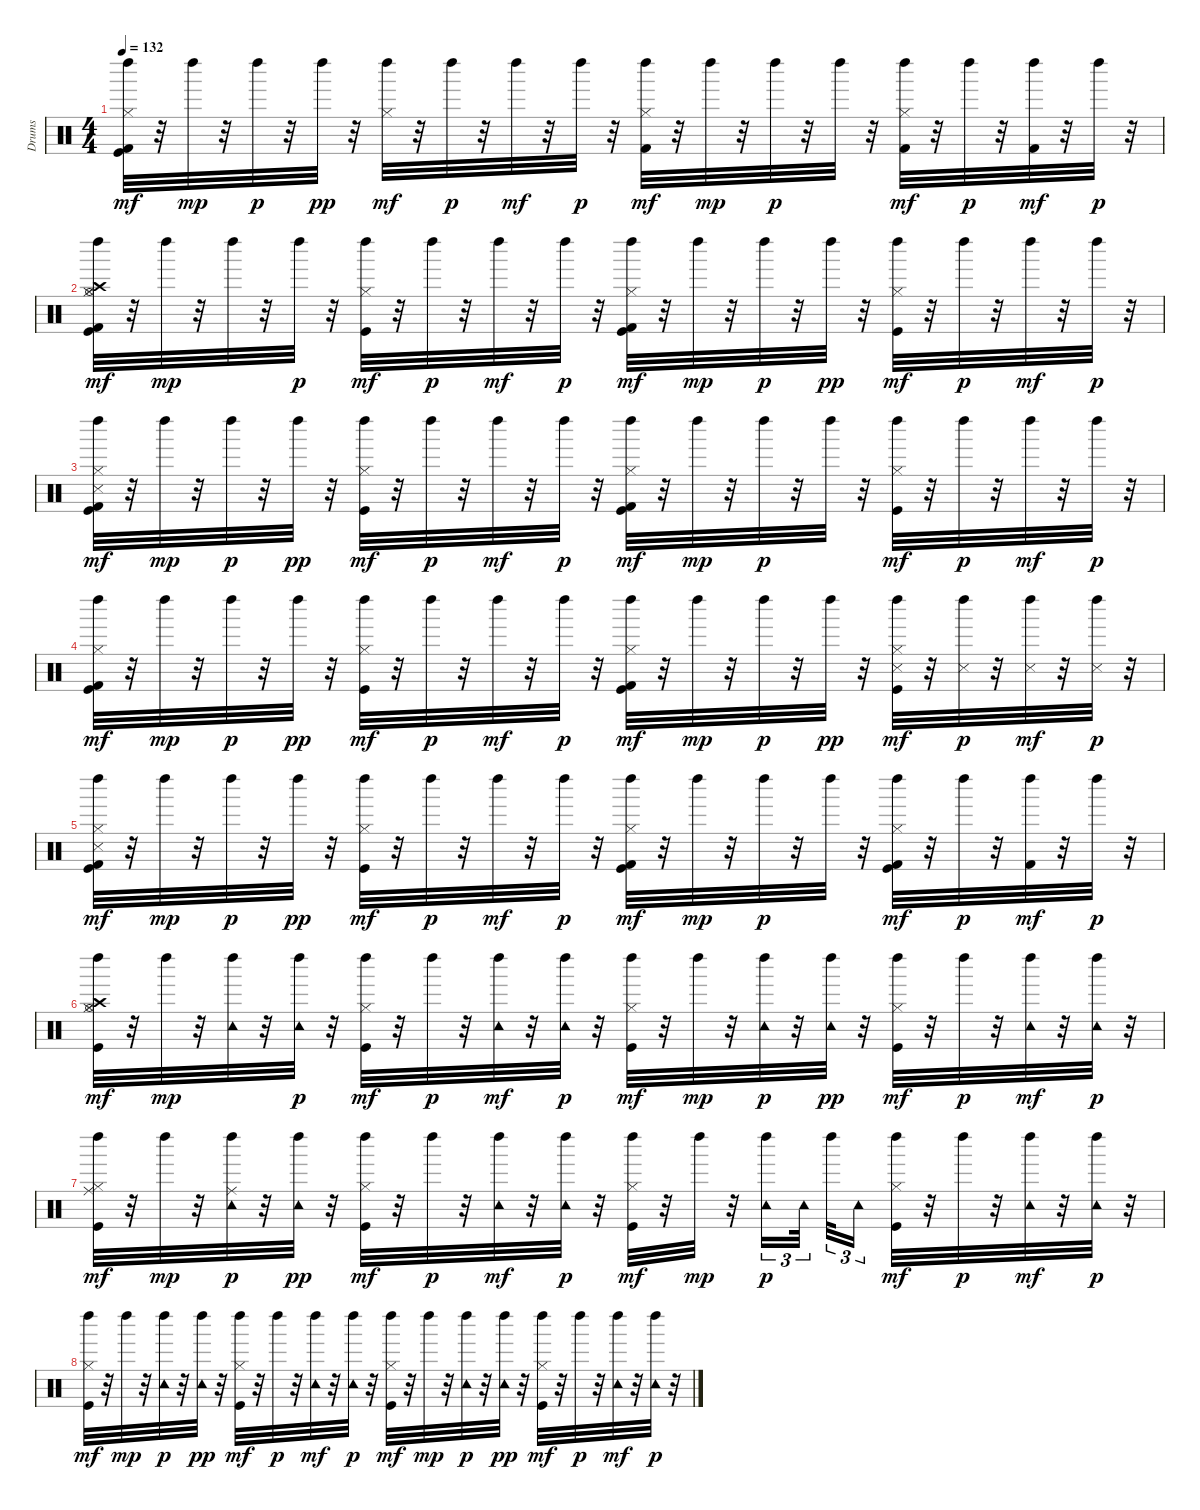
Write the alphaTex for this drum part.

\track ("Drums" "Drums") {instrument percussion}
\staff {score}
\articulation defaults
\ts (4 4)
\tempo 132
\clef neutral
\ks c
("Kick (hit)" "Kick (hit) 2" "Hi-Hat (closed)" "Left Maraca (hit)").32{dy mf} r.32 "Left Maraca (hit)".32{dy mp} r.32 "Left Maraca (hit)".32{dy p} r.32 "Left Maraca (hit)".32{dy pp} r.32 ("Hi-Hat (closed)" "Left Maraca (hit)").32{dy mf} r.32 "Left Maraca (hit)".32{dy p} r.32 "Left Maraca (hit)".32{dy mf} r.32 "Left Maraca (hit)".32{dy p} r.32 ("Kick (hit) 2" "Hi-Hat (closed)" "Left Maraca (hit)").32{dy mf} r.32 "Left Maraca (hit)".32{dy mp} r.32 "Left Maraca (hit)".32{dy p} r.32 "Left Maraca (hit)".32 r.32 ("Kick (hit) 2" "Hi-Hat (closed)" "Left Maraca (hit)").32{dy mf} r.32 "Left Maraca (hit)".32{dy p} r.32 ("Kick (hit) 2" "Left Maraca (hit)").32{dy mf} r.32 "Left Maraca (hit)".32{dy p} r.32 |
("Kick (hit)" "Kick (hit) 2" "Hi-Hat (closed)" "Hi-Hat (open)" "Crash high (hit)" "Left Maraca (hit)").32{dy mf} r.32 "Left Maraca (hit)".32{dy mp} r.32 "Left Maraca (hit)".32 r.32 "Left Maraca (hit)".32{dy p} r.32 ("Kick (hit)" "Hi-Hat (closed)" "Left Maraca (hit)").32{dy mf} r.32 "Left Maraca (hit)".32{dy p} r.32 "Left Maraca (hit)".32{dy mf} r.32 "Left Maraca (hit)".32{dy p} r.32 ("Kick (hit)" "Kick (hit) 2" "Hi-Hat (closed)" "Left Maraca (hit)").32{dy mf} r.32 "Left Maraca (hit)".32{dy mp} r.32 "Left Maraca (hit)".32{dy p} r.32 "Left Maraca (hit)".32{dy pp} r.32 ("Kick (hit)" "Hi-Hat (closed)" "Left Maraca (hit)").32{dy mf} r.32 "Left Maraca (hit)".32{dy p} r.32 "Left Maraca (hit)".32{dy mf} r.32 "Left Maraca (hit)".32{dy p} r.32 |
("Kick (hit)" "Kick (hit) 2" "Snare (side stick) 3" "Hi-Hat (closed)" "Left Maraca (hit)").32{dy mf} r.32 "Left Maraca (hit)".32{dy mp} r.32 "Left Maraca (hit)".32{dy p} r.32 "Left Maraca (hit)".32{dy pp} r.32 ("Kick (hit)" "Hi-Hat (closed)" "Left Maraca (hit)").32{dy mf} r.32 "Left Maraca (hit)".32{dy p} r.32 "Left Maraca (hit)".32{dy mf} r.32 "Left Maraca (hit)".32{dy p} r.32 ("Kick (hit)" "Kick (hit) 2" "Hi-Hat (closed)" "Left Maraca (hit)").32{dy mf} r.32 "Left Maraca (hit)".32{dy mp} r.32 "Left Maraca (hit)".32{dy p} r.32 "Left Maraca (hit)".32 r.32 ("Kick (hit)" "Hi-Hat (closed)" "Left Maraca (hit)").32{dy mf} r.32 "Left Maraca (hit)".32{dy p} r.32 "Left Maraca (hit)".32{dy mf} r.32 "Left Maraca (hit)".32{dy p} r.32 |
("Kick (hit)" "Kick (hit) 2" "Hi-Hat (closed)" "Left Maraca (hit)").32{dy mf} r.32 "Left Maraca (hit)".32{dy mp} r.32 "Left Maraca (hit)".32{dy p} r.32 "Left Maraca (hit)".32{dy pp} r.32 ("Kick (hit)" "Hi-Hat (closed)" "Left Maraca (hit)").32{dy mf} r.32 "Left Maraca (hit)".32{dy p} r.32 "Left Maraca (hit)".32{dy mf} r.32 "Left Maraca (hit)".32{dy p} r.32 ("Kick (hit)" "Kick (hit) 2" "Hi-Hat (closed)" "Left Maraca (hit)").32{dy mf} r.32 "Left Maraca (hit)".32{dy mp} r.32 "Left Maraca (hit)".32{dy p} r.32 "Left Maraca (hit)".32{dy pp} r.32 ("Kick (hit)" "Snare (side stick) 3" "Hi-Hat (closed)" "Left Maraca (hit)").32{dy mf} r.32 ("Snare (side stick) 3" "Left Maraca (hit)").32{dy p} r.32 ("Snare (side stick) 3" "Left Maraca (hit)").32{dy mf} r.32 ("Snare (side stick) 3" "Left Maraca (hit)").32{dy p} r.32 |
("Kick (hit)" "Kick (hit) 2" "Snare (side stick) 3" "Hi-Hat (closed)" "Left Maraca (hit)").32{dy mf} r.32 "Left Maraca (hit)".32{dy mp} r.32 "Left Maraca (hit)".32{dy p} r.32 "Left Maraca (hit)".32{dy pp} r.32 ("Kick (hit)" "Hi-Hat (closed)" "Left Maraca (hit)").32{dy mf} r.32 "Left Maraca (hit)".32{dy p} r.32 "Left Maraca (hit)".32{dy mf} r.32 "Left Maraca (hit)".32{dy p} r.32 ("Kick (hit)" "Kick (hit) 2" "Hi-Hat (closed)" "Left Maraca (hit)").32{dy mf} r.32 "Left Maraca (hit)".32{dy mp} r.32 "Left Maraca (hit)".32{dy p} r.32 "Left Maraca (hit)".32 r.32 ("Kick (hit)" "Kick (hit) 2" "Hi-Hat (closed)" "Left Maraca (hit)").32{dy mf} r.32 "Left Maraca (hit)".32{dy p} r.32 ("Kick (hit) 2" "Left Maraca (hit)").32{dy mf} r.32 "Left Maraca (hit)".32{dy p} r.32 |
("Kick (hit)" "Hi-Hat (closed)" "Hi-Hat (open)" "Crash high (hit)" "Left Maraca (hit)").32{dy mf} r.32 "Left Maraca (hit)".32{dy mp} r.32 ("Tambourine (hit)" "Left Maraca (hit)").32 r.32 ("Tambourine (hit)" "Left Maraca (hit)").32{dy p} r.32 ("Kick (hit)" "Hi-Hat (closed)" "Left Maraca (hit)").32{dy mf} r.32 "Left Maraca (hit)".32{dy p} r.32 ("Tambourine (hit)" "Left Maraca (hit)").32{dy mf} r.32 ("Tambourine (hit)" "Left Maraca (hit)").32{dy p} r.32 ("Kick (hit)" "Hi-Hat (closed)" "Left Maraca (hit)").32{dy mf} r.32 "Left Maraca (hit)".32{dy mp} r.32 ("Tambourine (hit)" "Left Maraca (hit)").32{dy p} r.32 ("Tambourine (hit)" "Left Maraca (hit)").32{dy pp} r.32 ("Kick (hit)" "Hi-Hat (closed)" "Left Maraca (hit)").32{dy mf} r.32 "Left Maraca (hit)".32{dy p} r.32 ("Tambourine (hit)" "Left Maraca (hit)").32{dy mf} r.32 ("Tambourine (hit)" "Left Maraca (hit)").32{dy p} r.32 |
("Kick (hit)" "Hi-Hat (closed)" "Ride (middle)" "Left Maraca (hit)").32{dy mf} r.32 "Left Maraca (hit)".32{dy mp} r.32 ("Ride (middle)" "Tambourine (hit)" "Left Maraca (hit)").32{dy p} r.32 ("Tambourine (hit)" "Left Maraca (hit)").32{dy pp} r.32 ("Kick (hit)" "Hi-Hat (closed)" "Left Maraca (hit)").32{dy mf} r.32 "Left Maraca (hit)".32{dy p} r.32 ("Tambourine (hit)" "Left Maraca (hit)").32{dy mf} r.32 ("Tambourine (hit)" "Left Maraca (hit)").32{dy p} r.32 ("Kick (hit)" "Hi-Hat (closed)" "Left Maraca (hit)").32{dy mf} r.32 "Left Maraca (hit)".32{dy mp} r.32 ("Tambourine (hit)" "Left Maraca (hit)").16{tu (3 2) dy p} "Tambourine (hit)".32{tu (3 2) beam splitsecondary} "Left Maraca (hit)".32{tu (3 2)} "Tambourine (hit)".16{tu (3 2)} ("Kick (hit)" "Hi-Hat (closed)" "Left Maraca (hit)").32{dy mf} r.32 "Left Maraca (hit)".32{dy p} r.32 ("Tambourine (hit)" "Left Maraca (hit)").32{dy mf} r.32 ("Tambourine (hit)" "Left Maraca (hit)").32{dy p} r.32 |
("Kick (hit)" "Hi-Hat (closed)" "Left Maraca (hit)").32{dy mf} r.32 "Left Maraca (hit)".32{dy mp} r.32 ("Tambourine (hit)" "Left Maraca (hit)").32{dy p} r.32 ("Tambourine (hit)" "Left Maraca (hit)").32{dy pp} r.32 ("Kick (hit)" "Hi-Hat (closed)" "Left Maraca (hit)").32{dy mf} r.32 "Left Maraca (hit)".32{dy p} r.32 ("Tambourine (hit)" "Left Maraca (hit)").32{dy mf} r.32 ("Tambourine (hit)" "Left Maraca (hit)").32{dy p} r.32 ("Kick (hit)" "Hi-Hat (closed)" "Left Maraca (hit)").32{dy mf} r.32 "Left Maraca (hit)".32{dy mp} r.32 ("Tambourine (hit)" "Left Maraca (hit)").32{dy p} r.32 ("Tambourine (hit)" "Left Maraca (hit)").32{dy pp} r.32 ("Kick (hit)" "Hi-Hat (closed)" "Left Maraca (hit)").32{dy mf} r.32 "Left Maraca (hit)".32{dy p} r.32 ("Tambourine (hit)" "Left Maraca (hit)").32{dy mf} r.32 ("Tambourine (hit)" "Left Maraca (hit)").32{dy p} r.32
